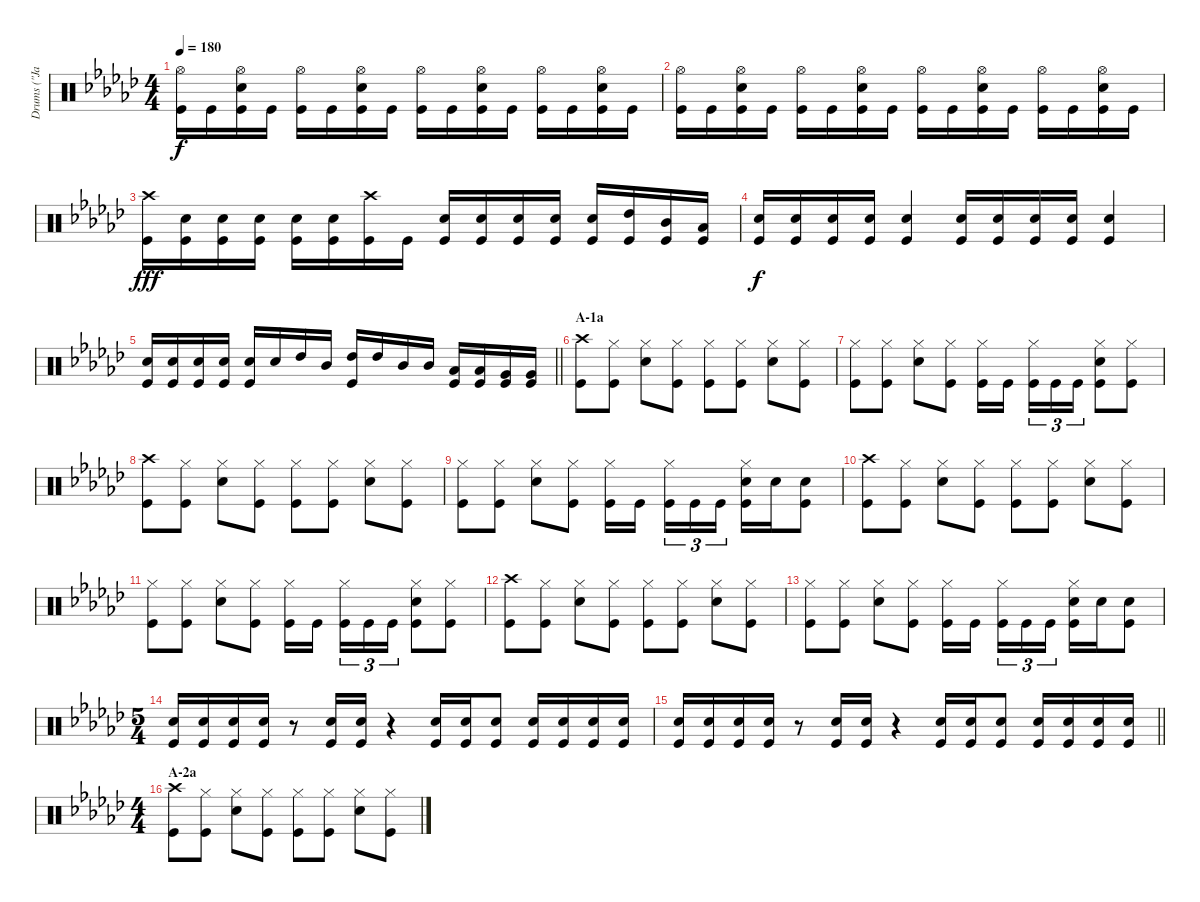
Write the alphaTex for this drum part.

\track ("Drums (\"Jane\")" "Drums (\"Ja") {instrument percussion}
\staff {score}
\articulation defaults
\ts (4 4)
\tempo 180
\clef neutral
\ks gb
("Hi-Hat (open)" "Kick (hit)").16{dy f} "Kick (hit)".16 ("Hi-Hat (open)" "Snare (hit) 2" "Kick (hit)").16 "Kick (hit)".16 ("Hi-Hat (open)" "Kick (hit)").16 "Kick (hit)".16 ("Hi-Hat (open)" "Snare (hit) 2" "Kick (hit)").16 "Kick (hit)".16 ("Hi-Hat (open)" "Kick (hit)").16 "Kick (hit)".16 ("Hi-Hat (open)" "Snare (hit) 2" "Kick (hit)").16 "Kick (hit)".16 ("Hi-Hat (open)" "Kick (hit)").16 "Kick (hit)".16 ("Hi-Hat (open)" "Snare (hit) 2" "Kick (hit)").16 "Kick (hit)".16 |
("Hi-Hat (open)" "Kick (hit)").16 "Kick (hit)".16 ("Hi-Hat (open)" "Snare (hit) 2" "Kick (hit)").16 "Kick (hit)".16 ("Hi-Hat (open)" "Kick (hit)").16 "Kick (hit)".16 ("Hi-Hat (open)" "Snare (hit) 2" "Kick (hit)").16 "Kick (hit)".16 ("Hi-Hat (open)" "Kick (hit)").16 "Kick (hit)".16 ("Hi-Hat (open)" "Snare (hit) 2" "Kick (hit)").16 "Kick (hit)".16 ("Hi-Hat (open)" "Kick (hit)").16 "Kick (hit)".16 ("Hi-Hat (open)" "Snare (hit) 2" "Kick (hit)").16 "Kick (hit)".16 |
("Crash high (hit)" "Kick (hit)").16{dy fff} ("Snare (hit) 2" "Kick (hit)").16 ("Snare (hit) 2" "Kick (hit)").16 ("Snare (hit) 2" "Kick (hit)").16 ("Snare (hit) 2" "Kick (hit)").16 ("Snare (hit) 2" "Kick (hit)").16 ("Crash high (hit)" "Kick (hit)").16 "Kick (hit)".16 ("Snare (hit) 2" "Kick (hit)").16 ("Snare (hit) 2" "Kick (hit)").16 ("Snare (hit) 2" "Kick (hit)").16 ("Snare (hit) 2" "Kick (hit)").16 ("Snare (hit) 2" "Kick (hit)").16 ("High Tom (hit)" "Kick (hit)").16 ("Mid Tom (hit)" "Kick (hit)").16 ("Low Tom (hit)" "Kick (hit)").16 |
("Snare (hit) 2" "Kick (hit)").16{dy f} ("Snare (hit) 2" "Kick (hit)").16 ("Snare (hit) 2" "Kick (hit)").16 ("Snare (hit) 2" "Kick (hit)").16 ("Snare (hit) 2" "Kick (hit)").4 ("Snare (hit) 2" "Kick (hit)").16 ("Snare (hit) 2" "Kick (hit)").16 ("Snare (hit) 2" "Kick (hit)").16 ("Snare (hit) 2" "Kick (hit)").16 ("Snare (hit) 2" "Kick (hit)").4 |
\barLineRight lightlight
("Snare (hit) 2" "Kick (hit)").16 ("Snare (hit) 2" "Kick (hit)").16 ("Snare (hit) 2" "Kick (hit)").16 ("Snare (hit) 2" "Kick (hit)").16 ("Snare (hit) 2" "Kick (hit)").16 "Snare (hit) 2".16 "High Tom (hit)".16 "Mid Tom (hit)".16 ("High Tom (hit)" "Kick (hit)").16 "High Tom (hit)".16 "Mid Tom (hit)".16 "Mid Tom (hit)".16 ("Low Tom (hit)" "Kick (hit)").16 ("Low Tom (hit)" "Kick (hit)").16 ("Very Low Tom (hit)" "Kick (hit)").16 ("Very Low Tom (hit)" "Kick (hit)").16 |
\section ("" "A-1a")
("Crash high (hit)" "Kick (hit)").8 ("Hi-Hat (closed)" "Kick (hit)").8 ("Hi-Hat (closed)" "Snare (hit) 2").8 ("Hi-Hat (closed)" "Kick (hit)").8 ("Hi-Hat (closed)" "Kick (hit)").8 ("Hi-Hat (closed)" "Kick (hit)").8 ("Hi-Hat (closed)" "Snare (hit) 2").8 ("Hi-Hat (closed)" "Kick (hit)").8 |
("Hi-Hat (closed)" "Kick (hit)").8 ("Hi-Hat (closed)" "Kick (hit)").8 ("Hi-Hat (closed)" "Snare (hit) 2").8 ("Hi-Hat (closed)" "Kick (hit)").8 ("Hi-Hat (closed)" "Kick (hit)").16 "Kick (hit)".16{beam splitsecondary} ("Hi-Hat (closed)" "Kick (hit)").16{tu (3 2)} "Kick (hit)".16{tu (3 2)} "Kick (hit)".16{tu (3 2)} ("Hi-Hat (closed)" "Snare (hit) 2" "Kick (hit)").8 ("Hi-Hat (closed)" "Kick (hit)").8 |
("Crash high (hit)" "Kick (hit)").8 ("Hi-Hat (closed)" "Kick (hit)").8 ("Hi-Hat (closed)" "Snare (hit) 2").8 ("Hi-Hat (closed)" "Kick (hit)").8 ("Hi-Hat (closed)" "Kick (hit)").8 ("Hi-Hat (closed)" "Kick (hit)").8 ("Hi-Hat (closed)" "Snare (hit) 2").8 ("Hi-Hat (closed)" "Kick (hit)").8 |
("Hi-Hat (closed)" "Kick (hit)").8 ("Hi-Hat (closed)" "Kick (hit)").8 ("Hi-Hat (closed)" "Snare (hit) 2").8 ("Hi-Hat (closed)" "Kick (hit)").8 ("Hi-Hat (closed)" "Kick (hit)").16 "Kick (hit)".16{beam splitsecondary} ("Hi-Hat (closed)" "Kick (hit)").16{tu (3 2)} "Kick (hit)".16{tu (3 2)} "Kick (hit)".16{tu (3 2)} ("Hi-Hat (closed)" "Snare (hit) 2" "Kick (hit)").16 "Snare (hit) 2".16 ("Snare (hit) 2" "Kick (hit)").8 |
("Crash high (hit)" "Kick (hit)").8 ("Hi-Hat (closed)" "Kick (hit)").8 ("Hi-Hat (closed)" "Snare (hit) 2").8 ("Hi-Hat (closed)" "Kick (hit)").8 ("Hi-Hat (closed)" "Kick (hit)").8 ("Hi-Hat (closed)" "Kick (hit)").8 ("Hi-Hat (closed)" "Snare (hit) 2").8 ("Hi-Hat (closed)" "Kick (hit)").8 |
("Hi-Hat (closed)" "Kick (hit)").8 ("Hi-Hat (closed)" "Kick (hit)").8 ("Hi-Hat (closed)" "Snare (hit) 2").8 ("Hi-Hat (closed)" "Kick (hit)").8 ("Hi-Hat (closed)" "Kick (hit)").16 "Kick (hit)".16{beam splitsecondary} ("Hi-Hat (closed)" "Kick (hit)").16{tu (3 2)} "Kick (hit)".16{tu (3 2)} "Kick (hit)".16{tu (3 2)} ("Hi-Hat (closed)" "Snare (hit) 2" "Kick (hit)").8 ("Hi-Hat (closed)" "Kick (hit)").8 |
("Crash high (hit)" "Kick (hit)").8 ("Hi-Hat (closed)" "Kick (hit)").8 ("Hi-Hat (closed)" "Snare (hit) 2").8 ("Hi-Hat (closed)" "Kick (hit)").8 ("Hi-Hat (closed)" "Kick (hit)").8 ("Hi-Hat (closed)" "Kick (hit)").8 ("Hi-Hat (closed)" "Snare (hit) 2").8 ("Hi-Hat (closed)" "Kick (hit)").8 |
("Hi-Hat (closed)" "Kick (hit)").8 ("Hi-Hat (closed)" "Kick (hit)").8 ("Hi-Hat (closed)" "Snare (hit) 2").8 ("Hi-Hat (closed)" "Kick (hit)").8 ("Hi-Hat (closed)" "Kick (hit)").16 "Kick (hit)".16{beam splitsecondary} ("Hi-Hat (closed)" "Kick (hit)").16{tu (3 2)} "Kick (hit)".16{tu (3 2)} "Kick (hit)".16{tu (3 2)} ("Hi-Hat (closed)" "Snare (hit) 2" "Kick (hit)").16 "Snare (hit) 2".16 ("Snare (hit) 2" "Kick (hit)").8 |
\ts (5 4)
("Snare (hit) 2" "Kick (hit)").16 ("Snare (hit) 2" "Kick (hit)").16 ("Snare (hit) 2" "Kick (hit)").16 ("Snare (hit) 2" "Kick (hit)").16 r.8 ("Snare (hit) 2" "Kick (hit)").16 ("Snare (hit) 2" "Kick (hit)").16 r.4 ("Snare (hit) 2" "Kick (hit)").16 ("Snare (hit) 2" "Kick (hit)").16 ("Snare (hit) 2" "Kick (hit)").8 ("Snare (hit) 2" "Kick (hit)").16 ("Snare (hit) 2" "Kick (hit)").16 ("Snare (hit) 2" "Kick (hit)").16 ("Snare (hit) 2" "Kick (hit)").16 |
\barLineRight lightlight
("Snare (hit) 2" "Kick (hit)").16 ("Snare (hit) 2" "Kick (hit)").16 ("Snare (hit) 2" "Kick (hit)").16 ("Snare (hit) 2" "Kick (hit)").16 r.8 ("Snare (hit) 2" "Kick (hit)").16 ("Snare (hit) 2" "Kick (hit)").16 r.4 ("Snare (hit) 2" "Kick (hit)").16 ("Snare (hit) 2" "Kick (hit)").16 ("Snare (hit) 2" "Kick (hit)").8 ("Snare (hit) 2" "Kick (hit)").16 ("Snare (hit) 2" "Kick (hit)").16 ("Snare (hit) 2" "Kick (hit)").16 ("Snare (hit) 2" "Kick (hit)").16 |
\ts (4 4)
\section ("" "A-2a")
("Crash high (hit)" "Kick (hit)").8 ("Hi-Hat (closed)" "Kick (hit)").8 ("Hi-Hat (closed)" "Snare (hit) 2").8 ("Hi-Hat (closed)" "Kick (hit)").8 ("Hi-Hat (closed)" "Kick (hit)").8 ("Hi-Hat (closed)" "Kick (hit)").8 ("Hi-Hat (closed)" "Snare (hit) 2").8 ("Hi-Hat (closed)" "Kick (hit)").8
